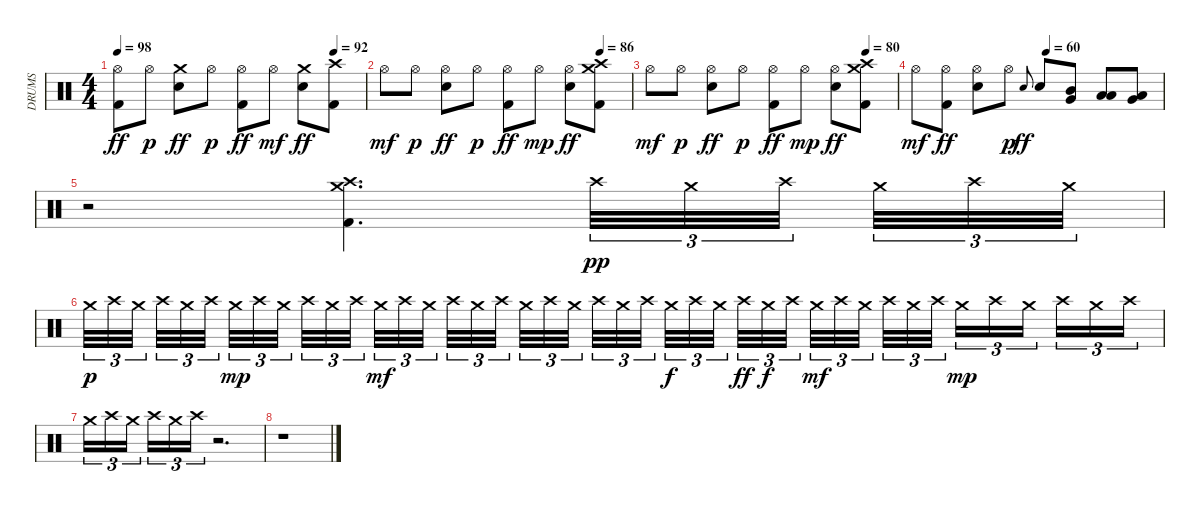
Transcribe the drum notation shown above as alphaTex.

\track ("DRUMS" "DRUMS") {instrument percussion}
\staff {score}
\articulation defaults
\ts (4 4)
\tempo 98
\tempo (92 0.875)
\clef neutral
\ks c
("Hi-Hat (open)" "Kick (hit) 2").8{dy ff} "Hi-Hat (open)".8{dy p} ("Crash medium (hit)" "Snare (hit) 2").8{dy ff} "Hi-Hat (open)".8{dy p} ("Hi-Hat (open)" "Kick (hit) 2").8{dy ff} "Hi-Hat (open)".8{dy mf} ("Crash medium (hit)" "Snare (hit) 2").8{dy ff} ("Crash high (hit)" "Kick (hit) 2").8 |
\tempo (86 0.875)
"Hi-Hat (open)".8{dy mf} "Hi-Hat (open)".8{dy p} ("Hi-Hat (open)" "Snare (hit) 2").8{dy ff} "Hi-Hat (open)".8{dy p} ("Hi-Hat (open)" "Kick (hit) 2").8{dy ff} "Hi-Hat (open)".8{dy mp} ("Hi-Hat (open)" "Snare (hit) 2").8{dy ff} ("Crash high (hit)" "Crash medium (hit)" "Kick (hit) 2").8 |
\tempo (80 0.875)
"Hi-Hat (open)".8{dy mf} "Hi-Hat (open)".8{dy p} ("Hi-Hat (open)" "Snare (hit) 2").8{dy ff} "Hi-Hat (open)".8{dy p} ("Hi-Hat (open)" "Kick (hit) 2").8{dy ff} "Hi-Hat (open)".8{dy mp} ("Hi-Hat (open)" "Snare (hit) 2").8{dy ff} ("Crash high (hit)" "Crash medium (hit)" "Kick (hit) 2").8 |
\tempo (60 0.53125)
"Hi-Hat (open)".8{dy mf} ("Hi-Hat (open)" "Kick (hit) 2").8{dy ff} ("Hi-Hat (open)" "Snare (hit) 2").8 "Hi-Hat (open)".8{dy p} "Snare (hit) 2".8{gr onbeat dy ff} "Snare (hit) 2".8 ("Mid Tom (hit)" "Very Low Tom (hit)").8 ("Low Tom (hit)" "Low Floor Tom (hit)").8 ("Very Low Tom (hit)" "Low Floor Tom (hit)").8 |
r.2 ("Crash high (hit)" "Crash medium (hit)" "Kick (hit) 2").4{d} "Crash high (hit)".32{tu (3 2) dy pp} "Crash medium (hit)".32{tu (3 2)} "Crash high (hit)".32{tu (3 2) beam splitsecondary} "Crash medium (hit)".32{tu (3 2)} "Crash high (hit)".32{tu (3 2)} "Crash medium (hit)".32{tu (3 2)} |
"Crash medium (hit)".32{tu (3 2) dy p} "Crash high (hit)".32{tu (3 2)} "Crash medium (hit)".32{tu (3 2) beam splitsecondary} "Crash high (hit)".32{tu (3 2)} "Crash medium (hit)".32{tu (3 2)} "Crash high (hit)".32{tu (3 2) beam splitsecondary} "Crash medium (hit)".32{tu (3 2) dy mp} "Crash high (hit)".32{tu (3 2)} "Crash medium (hit)".32{tu (3 2) beam splitsecondary} "Crash high (hit)".32{tu (3 2)} "Crash medium (hit)".32{tu (3 2)} "Crash high (hit)".32{tu (3 2)} "Crash medium (hit)".32{tu (3 2) dy mf} "Crash high (hit)".32{tu (3 2)} "Crash medium (hit)".32{tu (3 2) beam splitsecondary} "Crash high (hit)".32{tu (3 2)} "Crash medium (hit)".32{tu (3 2)} "Crash high (hit)".32{tu (3 2) beam splitsecondary} "Crash medium (hit)".32{tu (3 2)} "Crash high (hit)".32{tu (3 2)} "Crash medium (hit)".32{tu (3 2) beam splitsecondary} "Crash high (hit)".32{tu (3 2)} "Crash medium (hit)".32{tu (3 2)} "Crash high (hit)".32{tu (3 2)} "Crash medium (hit)".32{tu (3 2) dy f} "Crash high (hit)".32{tu (3 2)} "Crash medium (hit)".32{tu (3 2) beam splitsecondary} "Crash high (hit)".32{tu (3 2) dy ff} "Crash medium (hit)".32{tu (3 2) dy f} "Crash high (hit)".32{tu (3 2) beam splitsecondary} "Crash medium (hit)".32{tu (3 2) dy mf} "Crash high (hit)".32{tu (3 2)} "Crash medium (hit)".32{tu (3 2) beam splitsecondary} "Crash high (hit)".32{tu (3 2)} "Crash medium (hit)".32{tu (3 2)} "Crash high (hit)".32{tu (3 2)} "Crash medium (hit)".16{tu (3 2) dy mp} "Crash high (hit)".16{tu (3 2)} "Crash medium (hit)".16{tu (3 2) beam splitsecondary} "Crash high (hit)".16{tu (3 2)} "Crash medium (hit)".16{tu (3 2)} "Crash high (hit)".16{tu (3 2)} |
"Crash medium (hit)".16{tu (3 2)} "Crash high (hit)".16{tu (3 2)} "Crash medium (hit)".16{tu (3 2) beam splitsecondary} "Crash high (hit)".16{tu (3 2)} "Crash medium (hit)".16{tu (3 2)} "Crash high (hit)".16{tu (3 2)} r.2{d} |
r.1{volume 0}
